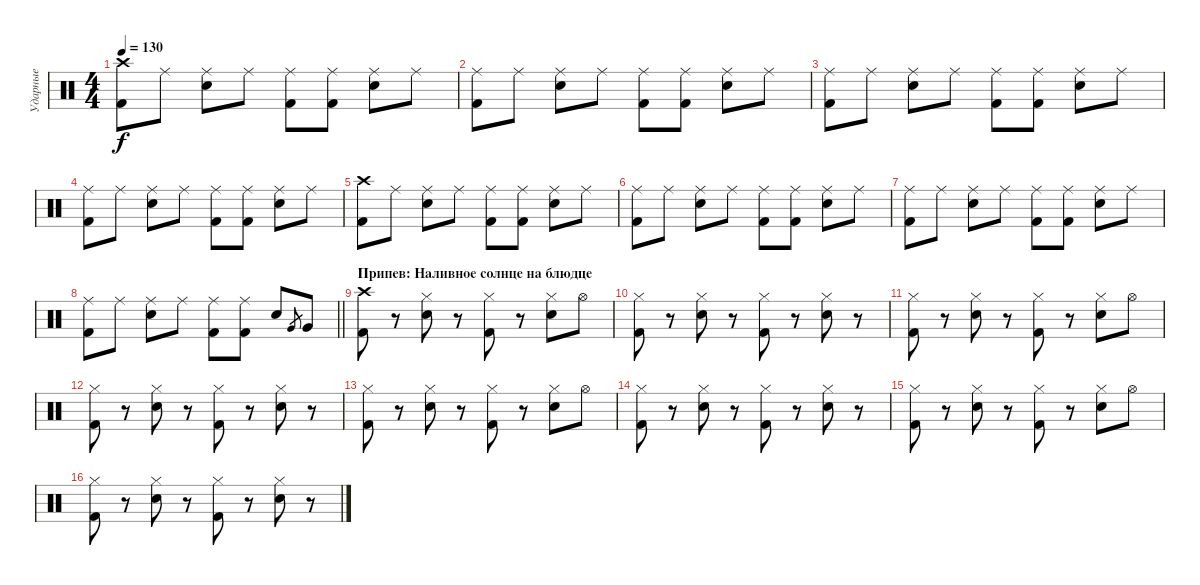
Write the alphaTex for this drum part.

\track ("Ударные" "Ударные") {instrument percussion}
\staff {score}
\articulation defaults
\ts (4 4)
\tempo 130
\clef neutral
\ks c
("Crash high (hit)" "Kick (hit) 2").8{dy f} "Ride (middle)".8 ("Ride (middle)" "Snare (hit) 2").8 "Ride (middle)".8 ("Ride (middle)" "Kick (hit) 2").8 ("Ride (middle)" "Kick (hit) 2").8 ("Ride (middle)" "Snare (hit) 2").8 "Ride (middle)".8 |
("Ride (middle)" "Kick (hit) 2").8 "Ride (middle)".8 ("Ride (middle)" "Snare (hit) 2").8 "Ride (middle)".8 ("Ride (middle)" "Kick (hit) 2").8 ("Ride (middle)" "Kick (hit) 2").8 ("Ride (middle)" "Snare (hit) 2").8 "Ride (middle)".8 |
("Ride (middle)" "Kick (hit) 2").8 "Ride (middle)".8 ("Ride (middle)" "Snare (hit) 2").8 "Ride (middle)".8 ("Ride (middle)" "Kick (hit) 2").8 ("Ride (middle)" "Kick (hit) 2").8 ("Ride (middle)" "Snare (hit) 2").8 "Ride (middle)".8 |
("Ride (middle)" "Kick (hit) 2").8 "Ride (middle)".8 ("Ride (middle)" "Snare (hit) 2").8 "Ride (middle)".8 ("Ride (middle)" "Kick (hit) 2").8 ("Ride (middle)" "Kick (hit) 2").8 ("Ride (middle)" "Snare (hit) 2").8 "Ride (middle)".8 |
("Crash high (hit)" "Kick (hit) 2").8 "Ride (middle)".8 ("Ride (middle)" "Snare (hit) 2").8 "Ride (middle)".8 ("Ride (middle)" "Kick (hit) 2").8 ("Ride (middle)" "Kick (hit) 2").8 ("Ride (middle)" "Snare (hit) 2").8 "Ride (middle)".8 |
("Ride (middle)" "Kick (hit) 2").8 "Ride (middle)".8 ("Ride (middle)" "Snare (hit) 2").8 "Ride (middle)".8 ("Ride (middle)" "Kick (hit) 2").8 ("Ride (middle)" "Kick (hit) 2").8 ("Ride (middle)" "Snare (hit) 2").8 "Ride (middle)".8 |
("Ride (middle)" "Kick (hit) 2").8 "Ride (middle)".8 ("Ride (middle)" "Snare (hit) 2").8 "Ride (middle)".8 ("Ride (middle)" "Kick (hit) 2").8 ("Ride (middle)" "Kick (hit) 2").8 ("Ride (middle)" "Snare (hit) 2").8 "Ride (middle)".8 |
\barLineRight lightlight
("Ride (middle)" "Kick (hit) 2").8 "Ride (middle)".8 ("Ride (middle)" "Snare (hit) 2").8 "Ride (middle)".8 ("Ride (middle)" "Kick (hit) 2").8 ("Ride (middle)" "Kick (hit) 2").8 "Snare (hit) 2".8 "Very Low Tom (hit)".8{gr} "Very Low Tom (hit)".8 |
\section ("" "Припев: Наливное солнце на блюдце")
("Crash high (hit)" "Kick (hit) 2").8 r.8 ("Hi-Hat (closed)" "Snare (hit) 2").8 r.8 ("Hi-Hat (closed)" "Kick (hit) 2").8 r.8 ("Hi-Hat (closed)" "Snare (hit) 2").8 "Hi-Hat (open)".8 |
("Hi-Hat (closed)" "Kick (hit) 2").8 r.8 ("Hi-Hat (closed)" "Snare (hit) 2").8 r.8 ("Hi-Hat (closed)" "Kick (hit) 2").8 r.8 ("Hi-Hat (closed)" "Snare (hit) 2").8 r.8 |
("Hi-Hat (closed)" "Kick (hit) 2").8 r.8 ("Hi-Hat (closed)" "Snare (hit) 2").8 r.8 ("Hi-Hat (closed)" "Kick (hit) 2").8 r.8 ("Hi-Hat (closed)" "Snare (hit) 2").8 "Hi-Hat (open)".8 |
("Hi-Hat (closed)" "Kick (hit) 2").8 r.8 ("Hi-Hat (closed)" "Snare (hit) 2").8 r.8 ("Hi-Hat (closed)" "Kick (hit) 2").8 r.8 ("Hi-Hat (closed)" "Snare (hit) 2").8 r.8 |
("Hi-Hat (closed)" "Kick (hit) 2").8 r.8 ("Hi-Hat (closed)" "Snare (hit) 2").8 r.8 ("Hi-Hat (closed)" "Kick (hit) 2").8 r.8 ("Hi-Hat (closed)" "Snare (hit) 2").8 "Hi-Hat (open)".8 |
("Hi-Hat (closed)" "Kick (hit) 2").8 r.8 ("Hi-Hat (closed)" "Snare (hit) 2").8 r.8 ("Hi-Hat (closed)" "Kick (hit) 2").8 r.8 ("Hi-Hat (closed)" "Snare (hit) 2").8 r.8 |
("Hi-Hat (closed)" "Kick (hit) 2").8 r.8 ("Hi-Hat (closed)" "Snare (hit) 2").8 r.8 ("Hi-Hat (closed)" "Kick (hit) 2").8 r.8 ("Hi-Hat (closed)" "Snare (hit) 2").8 "Hi-Hat (open)".8 |
("Hi-Hat (closed)" "Kick (hit) 2").8 r.8 ("Hi-Hat (closed)" "Snare (hit) 2").8 r.8 ("Hi-Hat (closed)" "Kick (hit) 2").8 r.8 ("Hi-Hat (closed)" "Snare (hit) 2").8 r.8
